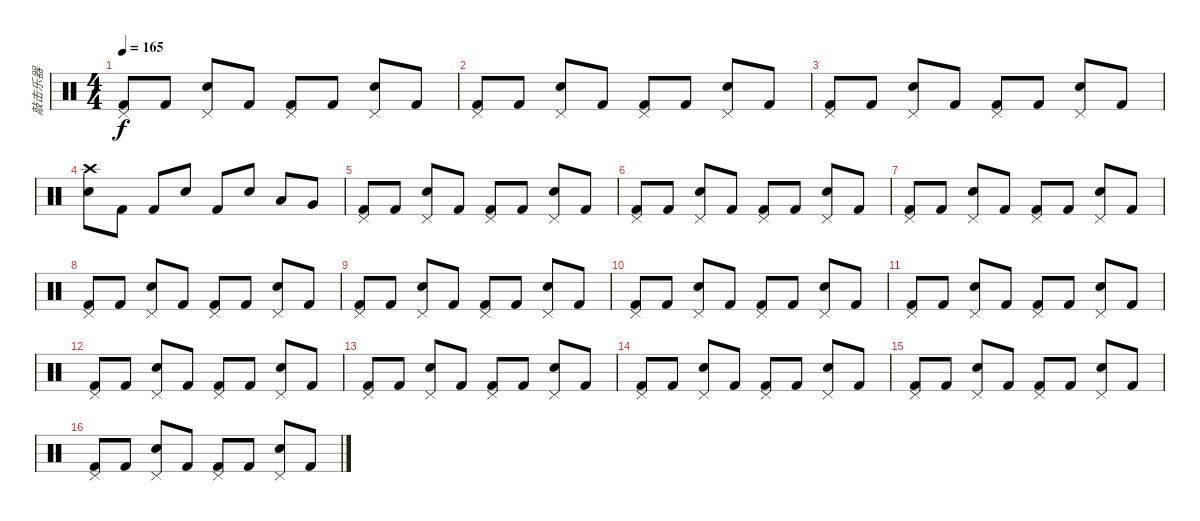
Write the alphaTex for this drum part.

\track ("敲击乐器" "敲击乐器") {instrument percussion}
\staff {score}
\articulation defaults
\ts (4 4)
\tempo 165
\clef neutral
\ks c
("Kick (hit) 2" "Pedal Hi-Hat (hit)").8{dy f} "Kick (hit) 2".8 ("Snare (hit) 2" "Pedal Hi-Hat (hit)").8 "Kick (hit) 2".8 ("Kick (hit) 2" "Pedal Hi-Hat (hit)").8 "Kick (hit) 2".8 ("Snare (hit) 2" "Pedal Hi-Hat (hit)").8 "Kick (hit) 2".8 |
("Kick (hit) 2" "Pedal Hi-Hat (hit)").8 "Kick (hit) 2".8 ("Snare (hit) 2" "Pedal Hi-Hat (hit)").8 "Kick (hit) 2".8 ("Kick (hit) 2" "Pedal Hi-Hat (hit)").8 "Kick (hit) 2".8 ("Snare (hit) 2" "Pedal Hi-Hat (hit)").8 "Kick (hit) 2".8 |
("Kick (hit) 2" "Pedal Hi-Hat (hit)").8 "Kick (hit) 2".8 ("Snare (hit) 2" "Pedal Hi-Hat (hit)").8 "Kick (hit) 2".8 ("Kick (hit) 2" "Pedal Hi-Hat (hit)").8 "Kick (hit) 2".8 ("Snare (hit) 2" "Pedal Hi-Hat (hit)").8 "Kick (hit) 2".8 |
("Snare (hit) 2" "Crash high (hit)").8 "Kick (hit) 2".8 "Kick (hit) 2".8 "Snare (hit) 2".8 "Kick (hit) 2".8 "Snare (hit) 2".8 "Low Tom (hit)".8 "Very Low Tom (hit)".8 |
("Kick (hit) 2" "Pedal Hi-Hat (hit)").8 "Kick (hit) 2".8 ("Snare (hit) 2" "Pedal Hi-Hat (hit)").8 "Kick (hit) 2".8 ("Kick (hit) 2" "Pedal Hi-Hat (hit)").8 "Kick (hit) 2".8 ("Snare (hit) 2" "Pedal Hi-Hat (hit)").8 "Kick (hit) 2".8 |
("Kick (hit) 2" "Pedal Hi-Hat (hit)").8 "Kick (hit) 2".8 ("Snare (hit) 2" "Pedal Hi-Hat (hit)").8 "Kick (hit) 2".8 ("Kick (hit) 2" "Pedal Hi-Hat (hit)").8 "Kick (hit) 2".8 ("Snare (hit) 2" "Pedal Hi-Hat (hit)").8 "Kick (hit) 2".8 |
("Kick (hit) 2" "Pedal Hi-Hat (hit)").8 "Kick (hit) 2".8 ("Snare (hit) 2" "Pedal Hi-Hat (hit)").8 "Kick (hit) 2".8 ("Kick (hit) 2" "Pedal Hi-Hat (hit)").8 "Kick (hit) 2".8 ("Snare (hit) 2" "Pedal Hi-Hat (hit)").8 "Kick (hit) 2".8 |
("Kick (hit) 2" "Pedal Hi-Hat (hit)").8 "Kick (hit) 2".8 ("Snare (hit) 2" "Pedal Hi-Hat (hit)").8 "Kick (hit) 2".8 ("Kick (hit) 2" "Pedal Hi-Hat (hit)").8 "Kick (hit) 2".8 ("Snare (hit) 2" "Pedal Hi-Hat (hit)").8 "Kick (hit) 2".8 |
("Kick (hit) 2" "Pedal Hi-Hat (hit)").8 "Kick (hit) 2".8 ("Snare (hit) 2" "Pedal Hi-Hat (hit)").8 "Kick (hit) 2".8 ("Kick (hit) 2" "Pedal Hi-Hat (hit)").8 "Kick (hit) 2".8 ("Snare (hit) 2" "Pedal Hi-Hat (hit)").8 "Kick (hit) 2".8 |
("Kick (hit) 2" "Pedal Hi-Hat (hit)").8 "Kick (hit) 2".8 ("Snare (hit) 2" "Pedal Hi-Hat (hit)").8 "Kick (hit) 2".8 ("Kick (hit) 2" "Pedal Hi-Hat (hit)").8 "Kick (hit) 2".8 ("Snare (hit) 2" "Pedal Hi-Hat (hit)").8 "Kick (hit) 2".8 |
("Kick (hit) 2" "Pedal Hi-Hat (hit)").8 "Kick (hit) 2".8 ("Snare (hit) 2" "Pedal Hi-Hat (hit)").8 "Kick (hit) 2".8 ("Kick (hit) 2" "Pedal Hi-Hat (hit)").8 "Kick (hit) 2".8 ("Snare (hit) 2" "Pedal Hi-Hat (hit)").8 "Kick (hit) 2".8 |
("Kick (hit) 2" "Pedal Hi-Hat (hit)").8 "Kick (hit) 2".8 ("Snare (hit) 2" "Pedal Hi-Hat (hit)").8 "Kick (hit) 2".8 ("Kick (hit) 2" "Pedal Hi-Hat (hit)").8 "Kick (hit) 2".8 ("Snare (hit) 2" "Pedal Hi-Hat (hit)").8 "Kick (hit) 2".8 |
("Kick (hit) 2" "Pedal Hi-Hat (hit)").8 "Kick (hit) 2".8 ("Snare (hit) 2" "Pedal Hi-Hat (hit)").8 "Kick (hit) 2".8 ("Kick (hit) 2" "Pedal Hi-Hat (hit)").8 "Kick (hit) 2".8 ("Snare (hit) 2" "Pedal Hi-Hat (hit)").8 "Kick (hit) 2".8 |
("Kick (hit) 2" "Pedal Hi-Hat (hit)").8 "Kick (hit) 2".8 ("Snare (hit) 2" "Pedal Hi-Hat (hit)").8 "Kick (hit) 2".8 ("Kick (hit) 2" "Pedal Hi-Hat (hit)").8 "Kick (hit) 2".8 ("Snare (hit) 2" "Pedal Hi-Hat (hit)").8 "Kick (hit) 2".8 |
("Kick (hit) 2" "Pedal Hi-Hat (hit)").8 "Kick (hit) 2".8 ("Snare (hit) 2" "Pedal Hi-Hat (hit)").8 "Kick (hit) 2".8 ("Kick (hit) 2" "Pedal Hi-Hat (hit)").8 "Kick (hit) 2".8 ("Snare (hit) 2" "Pedal Hi-Hat (hit)").8 "Kick (hit) 2".8 |
("Kick (hit) 2" "Pedal Hi-Hat (hit)").8 "Kick (hit) 2".8 ("Snare (hit) 2" "Pedal Hi-Hat (hit)").8 "Kick (hit) 2".8 ("Kick (hit) 2" "Pedal Hi-Hat (hit)").8 "Kick (hit) 2".8 ("Snare (hit) 2" "Pedal Hi-Hat (hit)").8 "Kick (hit) 2".8
